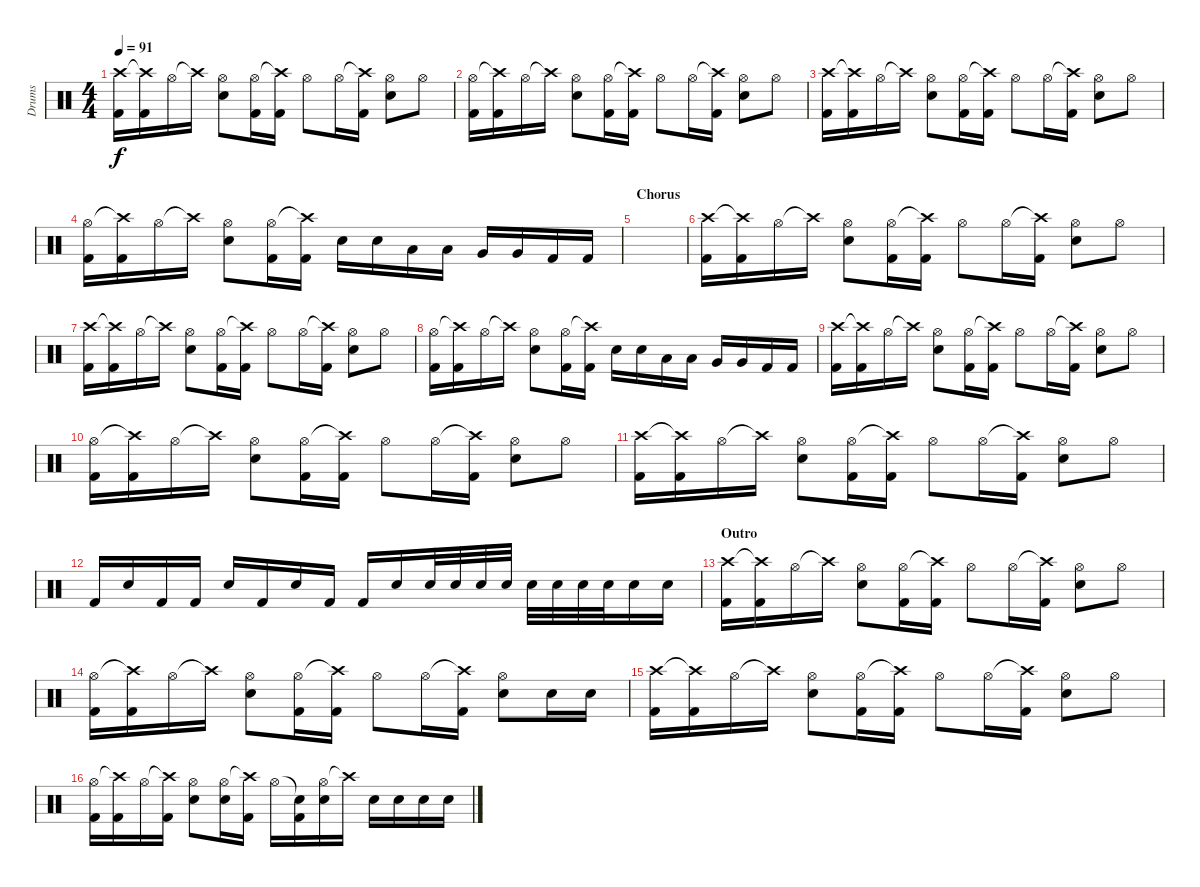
\track ("Drums" "Drums") {instrument percussion}
\staff {score}
\articulation defaults
\ts (4 4)
\tempo 91
\clef neutral
\ks c
("Crash high (hit)" "Kick (hit) 2").16{dy f} ("Crash high (hit)"{t} "Kick (hit) 2").16 "Hi-Hat (open)".16 "Crash high (hit)"{t}.16 ("Hi-Hat (open)" "Electric Snare (hit)").8 ("Hi-Hat (open)" "Kick (hit) 2").16 ("Crash high (hit)"{t} "Kick (hit) 2").16 "Hi-Hat (open)".8 "Hi-Hat (open)".16 ("Crash high (hit)"{t} "Kick (hit) 2").16 ("Hi-Hat (open)" "Electric Snare (hit)").8 "Hi-Hat (open)".8 |
("Hi-Hat (open)" "Kick (hit) 2").16 ("Crash high (hit)"{t} "Kick (hit) 2").16 "Hi-Hat (open)".16 "Crash high (hit)"{t}.16 ("Hi-Hat (open)" "Electric Snare (hit)").8 ("Hi-Hat (open)" "Kick (hit) 2").16 ("Crash high (hit)"{t} "Kick (hit) 2").16 "Hi-Hat (open)".8 "Hi-Hat (open)".16 ("Crash high (hit)"{t} "Kick (hit) 2").16 ("Hi-Hat (open)" "Electric Snare (hit)").8 "Hi-Hat (open)".8 |
("Crash high (hit)" "Kick (hit) 2").16 ("Crash high (hit)"{t} "Kick (hit) 2").16 "Hi-Hat (open)".16 "Crash high (hit)"{t}.16 ("Hi-Hat (open)" "Electric Snare (hit)").8 ("Hi-Hat (open)" "Kick (hit) 2").16 ("Crash high (hit)"{t} "Kick (hit) 2").16 "Hi-Hat (open)".8 "Hi-Hat (open)".16 ("Crash high (hit)"{t} "Kick (hit) 2").16 ("Hi-Hat (open)" "Electric Snare (hit)").8 "Hi-Hat (open)".8 |
("Hi-Hat (open)" "Kick (hit) 2").16 ("Crash high (hit)"{t} "Kick (hit) 2").16 "Hi-Hat (open)".16 "Crash high (hit)"{t}.16 ("Hi-Hat (open)" "Electric Snare (hit)").8 ("Hi-Hat (open)" "Kick (hit) 2").16 ("Crash high (hit)"{t} "Kick (hit) 2").16 "Electric Snare (hit)".16 "Electric Snare (hit)".16 "Low Tom (hit)".16 "Low Tom (hit)".16 "Very Low Tom (hit)".16 "Very Low Tom (hit)".16 "Kick (hit) 2".16 "Kick (hit) 2".16 |
\section ("" "Chorus")
|
("Crash high (hit)" "Kick (hit) 2").16 ("Crash high (hit)"{t} "Kick (hit) 2").16 "Hi-Hat (open)".16 "Crash high (hit)"{t}.16 ("Hi-Hat (open)" "Electric Snare (hit)").8 ("Hi-Hat (open)" "Kick (hit) 2").16 ("Crash high (hit)"{t} "Kick (hit) 2").16 "Hi-Hat (open)".8 "Hi-Hat (open)".16 ("Crash high (hit)"{t} "Kick (hit) 2").16 ("Hi-Hat (open)" "Electric Snare (hit)").8 "Hi-Hat (open)".8 |
("Crash high (hit)" "Kick (hit) 2").16 ("Crash high (hit)"{t} "Kick (hit) 2").16 "Hi-Hat (open)".16 "Crash high (hit)"{t}.16 ("Hi-Hat (open)" "Electric Snare (hit)").8 ("Hi-Hat (open)" "Kick (hit) 2").16 ("Crash high (hit)"{t} "Kick (hit) 2").16 "Hi-Hat (open)".8 "Hi-Hat (open)".16 ("Crash high (hit)"{t} "Kick (hit) 2").16 ("Hi-Hat (open)" "Electric Snare (hit)").8 "Hi-Hat (open)".8 |
("Hi-Hat (open)" "Kick (hit) 2").16 ("Crash high (hit)"{t} "Kick (hit) 2").16 "Hi-Hat (open)".16 "Crash high (hit)"{t}.16 ("Hi-Hat (open)" "Electric Snare (hit)").8 ("Hi-Hat (open)" "Kick (hit) 2").16 ("Crash high (hit)"{t} "Kick (hit) 2").16 "Electric Snare (hit)".16 "Electric Snare (hit)".16 "Low Tom (hit)".16 "Low Tom (hit)".16 "Very Low Tom (hit)".16 "Very Low Tom (hit)".16 "Kick (hit) 2".16 "Kick (hit) 2".16 |
("Crash high (hit)" "Kick (hit) 2").16 ("Crash high (hit)"{t} "Kick (hit) 2").16 "Hi-Hat (open)".16 "Crash high (hit)"{t}.16 ("Hi-Hat (open)" "Electric Snare (hit)").8 ("Hi-Hat (open)" "Kick (hit) 2").16 ("Crash high (hit)"{t} "Kick (hit) 2").16 "Hi-Hat (open)".8 "Hi-Hat (open)".16 ("Crash high (hit)"{t} "Kick (hit) 2").16 ("Hi-Hat (open)" "Electric Snare (hit)").8 "Hi-Hat (open)".8 |
("Hi-Hat (open)" "Kick (hit) 2").16 ("Crash high (hit)"{t} "Kick (hit) 2").16 "Hi-Hat (open)".16 "Crash high (hit)"{t}.16 ("Hi-Hat (open)" "Electric Snare (hit)").8 ("Hi-Hat (open)" "Kick (hit) 2").16 ("Crash high (hit)"{t} "Kick (hit) 2").16 "Hi-Hat (open)".8 "Hi-Hat (open)".16 ("Crash high (hit)"{t} "Kick (hit) 2").16 ("Hi-Hat (open)" "Electric Snare (hit)").8 "Hi-Hat (open)".8 |
("Crash high (hit)" "Kick (hit) 2").16 ("Crash high (hit)"{t} "Kick (hit) 2").16 "Hi-Hat (open)".16 "Crash high (hit)"{t}.16 ("Hi-Hat (open)" "Electric Snare (hit)").8 ("Hi-Hat (open)" "Kick (hit) 2").16 ("Crash high (hit)"{t} "Kick (hit) 2").16 "Hi-Hat (open)".8 "Hi-Hat (open)".16 ("Crash high (hit)"{t} "Kick (hit) 2").16 ("Hi-Hat (open)" "Electric Snare (hit)").8 "Hi-Hat (open)".8 |
"Kick (hit) 2".16 "Electric Snare (hit)".16 "Kick (hit) 2".16 "Kick (hit) 2".16 "Electric Snare (hit)".16 "Kick (hit) 2".16 "Electric Snare (hit)".16 "Kick (hit) 2".16 "Kick (hit) 2".16 "Electric Snare (hit)".16 "Electric Snare (hit)".32 "Electric Snare (hit)".32 "Electric Snare (hit)".32 "Electric Snare (hit)".32 "Electric Snare (hit)".32 "Electric Snare (hit)".32 "Electric Snare (hit)".32 "Electric Snare (hit)".32 "Electric Snare (hit)".16 "Electric Snare (hit)".16 |
\section ("" "Outro")
("Crash high (hit)" "Kick (hit) 2").16 ("Crash high (hit)"{t} "Kick (hit) 2").16 "Hi-Hat (open)".16 "Crash high (hit)"{t}.16 ("Hi-Hat (open)" "Electric Snare (hit)").8 ("Hi-Hat (open)" "Kick (hit) 2").16 ("Crash high (hit)"{t} "Kick (hit) 2").16 "Hi-Hat (open)".8 "Hi-Hat (open)".16 ("Crash high (hit)"{t} "Kick (hit) 2").16 ("Hi-Hat (open)" "Electric Snare (hit)").8 "Hi-Hat (open)".8 |
("Hi-Hat (open)" "Kick (hit) 2").16 ("Crash high (hit)"{t} "Kick (hit) 2").16 "Hi-Hat (open)".16 "Crash high (hit)"{t}.16 ("Hi-Hat (open)" "Electric Snare (hit)").8 ("Hi-Hat (open)" "Kick (hit) 2").16 ("Crash high (hit)"{t} "Kick (hit) 2").16 "Hi-Hat (open)".8 "Hi-Hat (open)".16 ("Crash high (hit)"{t} "Kick (hit) 2").16 ("Hi-Hat (open)" "Electric Snare (hit)").8 "Electric Snare (hit)".16 "Electric Snare (hit)".16 |
("Crash high (hit)" "Kick (hit) 2").16 ("Crash high (hit)"{t} "Kick (hit) 2").16 "Hi-Hat (open)".16 "Crash high (hit)"{t}.16 ("Hi-Hat (open)" "Electric Snare (hit)").8 ("Hi-Hat (open)" "Kick (hit) 2").16 ("Crash high (hit)"{t} "Kick (hit) 2").16 "Hi-Hat (open)".8 "Hi-Hat (open)".16 ("Crash high (hit)"{t} "Kick (hit) 2").16 ("Hi-Hat (open)" "Electric Snare (hit)").8 "Hi-Hat (open)".8 |
("Hi-Hat (open)" "Kick (hit) 2").16 ("Crash high (hit)"{t} "Kick (hit) 2").16 "Hi-Hat (open)".16 ("Crash high (hit)"{t} "Kick (hit) 2").16 ("Hi-Hat (open)" "Electric Snare (hit)").8 ("Hi-Hat (open)" "Electric Snare (hit)").16 ("Crash high (hit)"{t} "Kick (hit) 2").16 "Hi-Hat (open)".16 ("Snare (hit)"{t} "Kick (hit) 2").16 ("Hi-Hat (open)" "Electric Snare (hit)").16 "Crash high (hit)"{t}.16 "Electric Snare (hit)".16 "Electric Snare (hit)".16 "Electric Snare (hit)".16 "Electric Snare (hit)".16
